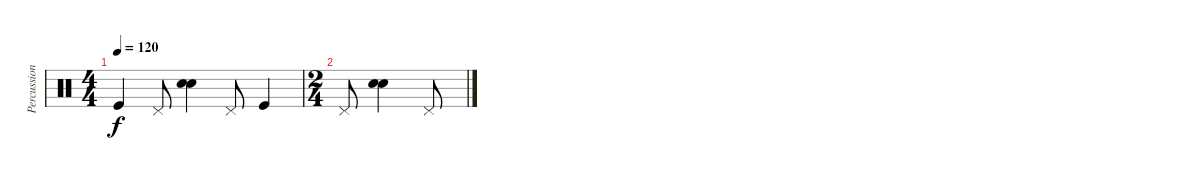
\track ("Percussions" "Percussion") {instrument percussion}
\staff {score}
\articulation defaults
\ts (4 4)
\tempo 120
\clef neutral
\ks c "Kick (hit)".4{dy f} "Pedal Hi-Hat (hit)".8
("Snare (hit) 2" "Electric Snare (hit)").4{bu 240} "Pedal Hi-Hat (hit)".8 "Kick (hit)".4 |
\ts (2 4)
"Pedal Hi-Hat (hit)".8 ("Snare (hit) 2" "Electric Snare (hit)").4{bu 240} "Pedal Hi-Hat (hit)".8
